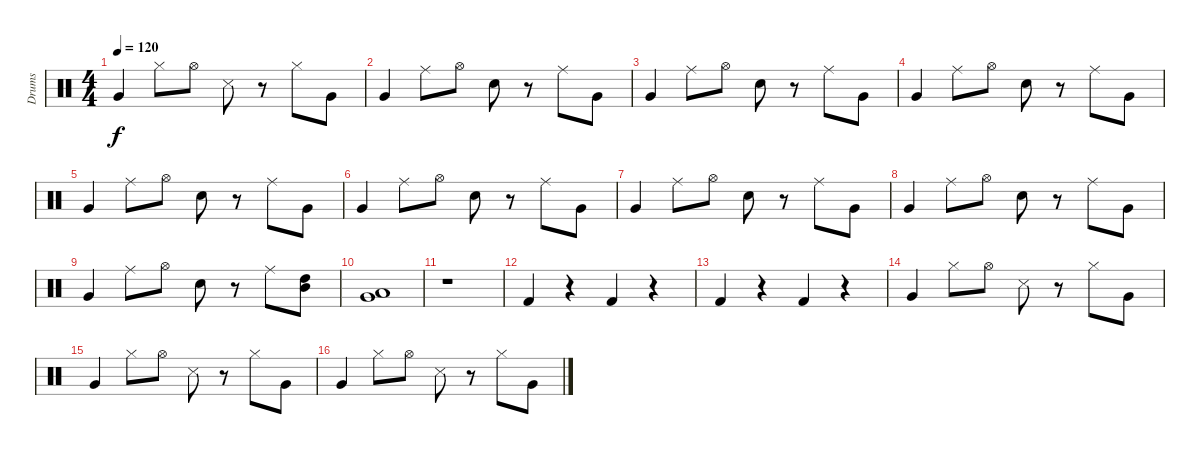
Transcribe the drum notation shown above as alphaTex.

\track ("Drums" "Drums") {instrument percussion}
\staff {score}
\articulation defaults
\ts (4 4)
\tempo 120
\clef neutral
\ks c "Very Low Tom (hit)".4{dy f} "Hi-Hat (closed)".8 "Hi-Hat (open)".8 "Snare (side stick) 3".8
r.8 "Hi-Hat (closed)".8 "Very Low Tom (hit)".8 |
"Very Low Tom (hit)".4 "Ride (middle)".8 "Hi-Hat (open)".8 "Electric Snare (hit)".8 r.8 "Ride (middle)".8 "Very Low Tom (hit)".8 |
"Very Low Tom (hit)".4 "Ride (middle)".8 "Hi-Hat (open)".8 "Electric Snare (hit)".8 r.8 "Ride (middle)".8 "Very Low Tom (hit)".8 |
"Very Low Tom (hit)".4 "Ride (middle)".8 "Hi-Hat (open)".8 "Electric Snare (hit)".8 r.8 "Ride (middle)".8 "Very Low Tom (hit)".8 |
"Very Low Tom (hit)".4 "Ride (middle)".8 "Hi-Hat (open)".8 "Electric Snare (hit)".8 r.8 "Ride (middle)".8 "Very Low Tom (hit)".8 |
"Very Low Tom (hit)".4 "Ride (middle)".8 "Hi-Hat (open)".8 "Electric Snare (hit)".8 r.8 "Ride (middle)".8 "Very Low Tom (hit)".8 |
"Very Low Tom (hit)".4 "Ride (middle)".8 "Hi-Hat (open)".8 "Electric Snare (hit)".8 r.8 "Ride (middle)".8 "Very Low Tom (hit)".8 |
"Very Low Tom (hit)".4 "Ride (middle)".8 "Hi-Hat (open)".8 "Electric Snare (hit)".8 r.8 "Ride (middle)".8 "Very Low Tom (hit)".8 |
"Very Low Tom (hit)".4 "Ride (middle)".8 "Hi-Hat (open)".8 "Electric Snare (hit)".8 r.8 "Ride (middle)".8 ("Mid Tom (hit)" "High Tom (hit)").8 |
("Very Low Tom (hit)" "Low Floor Tom (hit)").1 |
r.1 |
"Kick (hit) 2".4 r.4 "Kick (hit) 2".4 r.4 |
"Kick (hit) 2".4 r.4 "Kick (hit) 2".4 r.4 |
"Very Low Tom (hit)".4 "Hi-Hat (closed)".8 "Hi-Hat (open)".8 "Snare (side stick) 3".8 r.8 "Hi-Hat (closed)".8 "Very Low Tom (hit)".8 |
"Very Low Tom (hit)".4 "Hi-Hat (closed)".8 "Hi-Hat (open)".8 "Snare (side stick) 3".8 r.8 "Hi-Hat (closed)".8 "Very Low Tom (hit)".8 |
"Very Low Tom (hit)".4 "Hi-Hat (closed)".8 "Hi-Hat (open)".8 "Snare (side stick) 3".8 r.8 "Hi-Hat (closed)".8 "Very Low Tom (hit)".8
